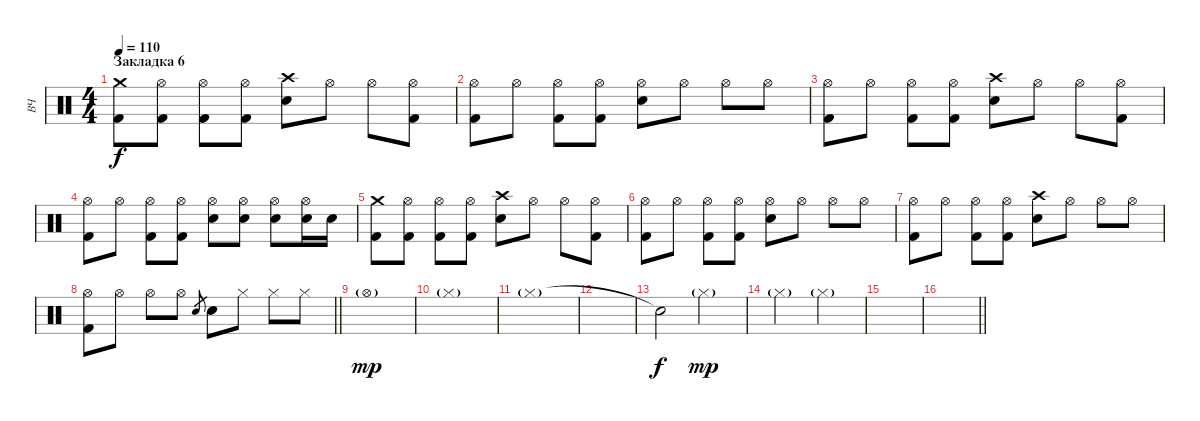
\track ("ВЧ" "ВЧ") {instrument percussion}
\staff {score}
\articulation defaults
\ts (4 4)
\section ("" "Закладка 6")
\tempo 110
\clef neutral
\ks c
("Crash medium (hit)" "Kick (hit) 2").8{dy f} ("Hi-Hat (open)" "Kick (hit) 2").8 ("Hi-Hat (open)" "Kick (hit) 2").8 ("Hi-Hat (open)" "Kick (hit) 2").8 ("Crash high (hit)" "Snare (hit) 2").8 "Hi-Hat (open)".8 "Hi-Hat (open)".8 ("Hi-Hat (open)" "Kick (hit) 2").8 |
("Hi-Hat (open)" "Kick (hit) 2").8 "Hi-Hat (open)".8 ("Hi-Hat (open)" "Kick (hit) 2").8 ("Hi-Hat (open)" "Kick (hit) 2").8 ("Hi-Hat (open)" "Snare (hit) 2").8 "Hi-Hat (open)".8 "Hi-Hat (open)".8 "Hi-Hat (open)".8 |
("Hi-Hat (open)" "Kick (hit) 2").8 "Hi-Hat (open)".8 ("Hi-Hat (open)" "Kick (hit) 2").8 ("Hi-Hat (open)" "Kick (hit) 2").8 ("Crash high (hit)" "Snare (hit) 2").8 "Hi-Hat (open)".8 "Hi-Hat (open)".8 ("Hi-Hat (open)" "Kick (hit) 2").8 |
("Hi-Hat (open)" "Kick (hit) 2").8 "Hi-Hat (open)".8 ("Hi-Hat (open)" "Kick (hit) 2").8 ("Hi-Hat (open)" "Kick (hit) 2").8 ("Hi-Hat (open)" "Snare (hit) 2").8 ("Hi-Hat (open)" "Snare (hit) 2").8 ("Hi-Hat (open)" "Snare (hit) 2").8 ("Hi-Hat (open)" "Snare (hit) 2").16 "Snare (hit) 2".16 |
("Crash medium (hit)" "Kick (hit) 2").8 ("Hi-Hat (open)" "Kick (hit) 2").8 ("Hi-Hat (open)" "Kick (hit) 2").8 ("Hi-Hat (open)" "Kick (hit) 2").8 ("Crash high (hit)" "Snare (hit) 2").8 "Hi-Hat (open)".8 "Hi-Hat (open)".8 ("Hi-Hat (open)" "Kick (hit) 2").8 |
("Hi-Hat (open)" "Kick (hit) 2").8 "Hi-Hat (open)".8 ("Hi-Hat (open)" "Kick (hit) 2").8 ("Hi-Hat (open)" "Kick (hit) 2").8 ("Hi-Hat (open)" "Snare (hit) 2").8 "Hi-Hat (open)".8 "Hi-Hat (open)".8 "Hi-Hat (open)".8 |
("Hi-Hat (open)" "Kick (hit) 2").8 "Hi-Hat (open)".8 ("Hi-Hat (open)" "Kick (hit) 2").8 ("Hi-Hat (open)" "Kick (hit) 2").8 ("Crash high (hit)" "Snare (hit) 2").8 "Hi-Hat (open)".8 "Hi-Hat (open)".8 "Hi-Hat (open)".8 |
\barLineRight lightlight
("Hi-Hat (open)" "Kick (hit) 2").8 "Hi-Hat (open)".8 "Hi-Hat (open)".8 "Hi-Hat (open)".8 "Snare (hit) 2".8{gr} "Snare (hit) 2".8 "Hi-Hat (closed)".8 "Hi-Hat (closed)".8 "Hi-Hat (closed)".8 |
"Hi-Hat (open)"{g}.1{dy mp} |
"Hi-Hat (closed)"{g}.1 |
"Hi-Hat (closed)"{g}.1 |
|
"Snare (hit)"{t}.2{dy f} "Hi-Hat (closed)"{g}.2{dy mp} |
"Hi-Hat (closed)"{g}.2 "Hi-Hat (closed)"{g}.2 |
|
\barLineRight lightlight
